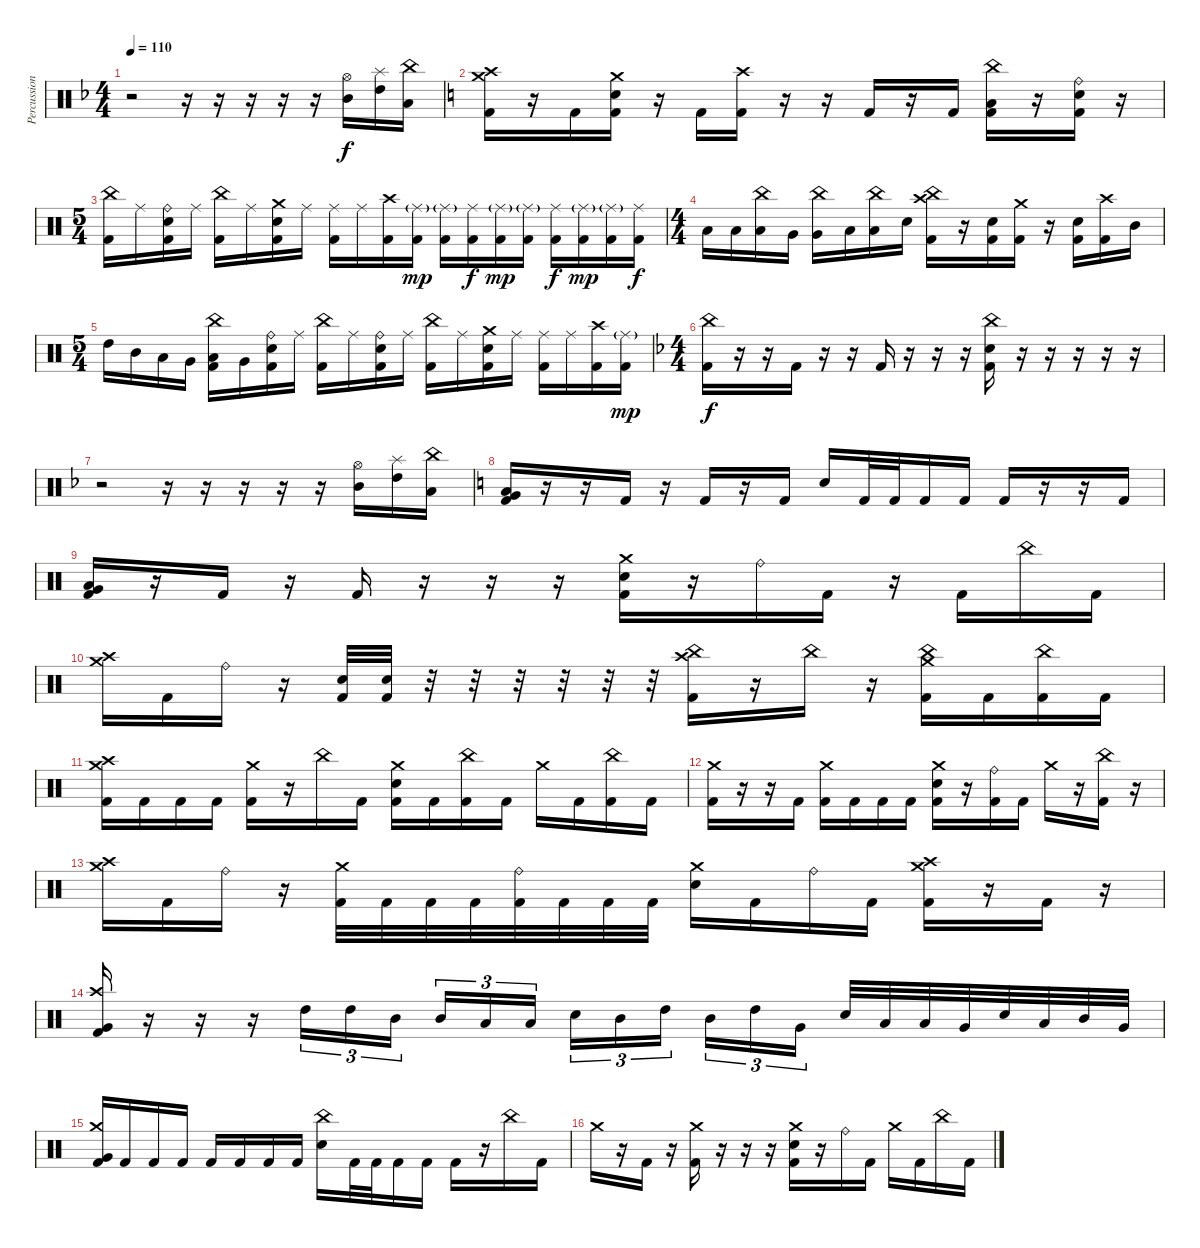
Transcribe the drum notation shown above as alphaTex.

\track ("Percussion" "Percussion") {instrument percussion}
\staff {score}
\articulation defaults
\ts (4 4)
\tempo 110
\clef neutral
\ks dminor
r.2{dy f} r.16 r.16 r.16 r.16 r.16 ("Mid Tom (hit)" "Hi-Hat (open)").16 ("High Tom (hit)" "Splash (hit)").16 ("Low Tom (hit)" "China (hit)").16 |
\ks c
("Kick (hit) 2" "Crash medium (hit)" "Crash high (hit)").16 r.16 "Kick (hit) 2".16 ("Kick (hit) 2" "Electric Snare (hit)" "Crash medium (hit)").16 r.16 "Kick (hit) 2".16 ("Kick (hit) 2" "Crash high (hit)").16 r.16 r.16 "Kick (hit) 2".16 r.16 "Kick (hit) 2".16 ("Kick (hit) 2" "Low Floor Tom (hit)" "China (hit)").16 r.16 ("Kick (hit) 2" "Electric Snare (hit)" "Ride (bell)").16 r.16 |
\ts (5 4)
("Kick (hit) 2" "China (hit)").16 "Ride (middle)".16 ("Kick (hit) 2" "Electric Snare (hit)" "Ride (bell)").16 "Ride (middle)".16 ("Kick (hit) 2" "China (hit)").16 "Ride (middle)".16 ("Kick (hit) 2" "Electric Snare (hit)" "Crash medium (hit)").16 "Ride (middle)".16 ("Kick (hit) 2" "Ride (middle)").16 "Ride (middle)".16 ("Kick (hit) 2" "Crash high (hit)").16 ("Kick (hit) 2" "Ride (middle)"{g}).16{dy mp} ("Kick (hit) 2" "Ride (middle)"{g}).16 ("Kick (hit) 2" "Ride (middle)").16{dy f} ("Kick (hit) 2" "Ride (middle)"{g}).16{dy mp} ("Kick (hit) 2" "Ride (middle)"{g}).16 ("Kick (hit) 2" "Ride (middle)").16{dy f} ("Kick (hit) 2" "Ride (middle)"{g}).16{dy mp} ("Kick (hit) 2" "Ride (middle)"{g}).16 ("Kick (hit) 2" "Ride (middle)").16{dy f} |
\ts (4 4)
"Low Tom (hit)".16 "Low Tom (hit)".16 ("Low Tom (hit)" "China (hit)").16 "Very Low Tom (hit)".16 ("Very Low Tom (hit)" "China (hit)").16 "Low Floor Tom (hit)".16 ("Low Floor Tom (hit)" "China (hit)").16 "Electric Snare (hit)".16 ("Kick (hit) 2" "China (hit)" "Crash high (hit)").16 r.16 ("Kick (hit) 2" "Electric Snare (hit)").16 ("Kick (hit) 2" "Crash medium (hit)").16 r.16 ("Kick (hit) 2" "Electric Snare (hit)").16 ("Kick (hit) 2" "Crash high (hit)").16 "Mid Tom (hit)".16 |
\ts (5 4)
"High Tom (hit)".16 "Mid Tom (hit)".16 "Low Tom (hit)".16 "Very Low Tom (hit)".16 ("Kick (hit) 2" "Low Floor Tom (hit)" "China (hit)").16 "Very Low Tom (hit)".16 ("Kick (hit) 2" "Electric Snare (hit)" "Ride (bell)").16 "Ride (middle)".16 ("Kick (hit) 2" "China (hit)").16 "Ride (middle)".16 ("Kick (hit) 2" "Electric Snare (hit)" "Ride (bell)").16 "Ride (middle)".16 ("Kick (hit) 2" "China (hit)").16 "Ride (middle)".16 ("Kick (hit) 2" "Electric Snare (hit)" "Crash medium (hit)").16 "Ride (middle)".16 ("Kick (hit) 2" "Ride (middle)").16 "Ride (middle)".16 ("Kick (hit) 2" "Crash high (hit)").16 ("Kick (hit) 2" "Ride (middle)"{g}).16{dy mp} |
\ts (4 4)
\ks dminor
("Kick (hit) 2" "China (hit)").16{dy f} r.16 r.16 "Kick (hit) 2".16 r.16 r.16 "Kick (hit) 2".16 r.16 r.16 r.16 ("Electric Snare (hit)" "China (hit)" "Kick (hit) 2").16 r.16 r.16 r.16 r.16 r.16 |
r.2 r.16 r.16 r.16 r.16 r.16 ("Mid Tom (hit)" "Hi-Hat (open)").16 ("High Tom (hit)" "Splash (hit)").16 ("Low Tom (hit)" "China (hit)").16 |
\ks c
("Kick (hit) 2" "Low Floor Tom (hit)" "Very Low Tom (hit)").16 r.16 r.16 "Kick (hit) 2".16 r.16 "Kick (hit) 2".16 r.16 "Kick (hit) 2".16 "Electric Snare (hit)".16 "Kick (hit) 2".32 "Kick (hit) 2".32 "Kick (hit) 2".16 "Kick (hit) 2".16 "Kick (hit) 2".16 r.16 r.16 "Kick (hit) 2".16 |
("Kick (hit) 2" "Low Floor Tom (hit)" "Very Low Tom (hit)").16 r.16 "Kick (hit) 2".16 r.16 "Kick (hit) 2".16 r.16 r.16 r.16 ("Kick (hit) 2" "Crash medium (hit)" "Electric Snare (hit)").16 r.16 "Ride (bell)".16 "Kick (hit) 2".16 r.16 "Kick (hit) 2".16 "China (hit)".16 "Kick (hit) 2".16 |
("Crash medium (hit)" "Crash high (hit)").16 "Kick (hit) 2".16 "Ride (bell)".16 r.16 ("Kick (hit) 2" "Electric Snare (hit)").32 ("Kick (hit) 2" "Electric Snare (hit)").32 r.32 r.32 r.32 r.32 r.32 r.32 ("Kick (hit) 2" "China (hit)" "Crash high (hit)").16 r.16 "China (hit)".16 r.16 ("Kick (hit) 2" "China (hit)" "Crash medium (hit)").16 "Kick (hit) 2".16 ("Kick (hit) 2" "China (hit)").16 "Kick (hit) 2".16 |
("Kick (hit) 2" "Crash high (hit)" "Crash medium (hit)").16 "Kick (hit) 2".16 "Kick (hit) 2".16 "Kick (hit) 2".16 ("Kick (hit) 2" "Crash medium (hit)").16 r.16 "China (hit)".16 "Kick (hit) 2".16 ("Kick (hit) 2" "Crash medium (hit)" "Electric Snare (hit)").16 "Kick (hit) 2".16 ("Kick (hit) 2" "China (hit)").16 "Kick (hit) 2".16 "Crash medium (hit)".16 "Kick (hit) 2".16 ("Kick (hit) 2" "China (hit)").16 "Kick (hit) 2".16 |
("Kick (hit) 2" "Crash medium (hit)").16 r.16 r.16 "Kick (hit) 2".16 ("Kick (hit) 2" "Crash medium (hit)").16 "Kick (hit) 2".16 "Kick (hit) 2".16 "Kick (hit) 2".16 ("Kick (hit) 2" "Crash medium (hit)" "Electric Snare (hit)").16 r.16 ("Kick (hit) 2" "Ride (bell)").16 "Kick (hit) 2".16 "Crash medium (hit)".16 r.16 ("Kick (hit) 2" "China (hit)").16 r.16 |
("Crash medium (hit)" "Crash high (hit)").16 "Kick (hit) 2".16 "Ride (bell)".16 r.16 ("Kick (hit) 2" "Crash medium (hit)").32 "Kick (hit) 2".32 "Kick (hit) 2".32 "Kick (hit) 2".32 ("Kick (hit) 2" "Ride (bell)").32 "Kick (hit) 2".32 "Kick (hit) 2".32 "Kick (hit) 2".32 ("Crash medium (hit)" "Electric Snare (hit)").16 "Kick (hit) 2".16 "Ride (bell)".16 "Kick (hit) 2".16 ("Kick (hit) 2" "Crash high (hit)" "Crash medium (hit)").16 r.16 "Kick (hit) 2".16 r.16 |
("Kick (hit) 2" "Very Low Tom (hit)" "Crash high (hit)").16 r.16 r.16 r.16 "High Tom (hit)".16{tu (3 2)} "High Tom (hit)".16{tu (3 2)} "Mid Tom (hit)".16{tu (3 2)} "Mid Tom (hit)".16{tu (3 2)} "Low Tom (hit)".16{tu (3 2)} "Low Tom (hit)".16{tu (3 2)} "Electric Snare (hit)".16{tu (3 2)} "Mid Tom (hit)".16{tu (3 2)} "High Tom (hit)".16{tu (3 2)} "Mid Tom (hit)".16{tu (3 2)} "High Tom (hit)".16{tu (3 2)} "Very Low Tom (hit)".16{tu (3 2)} "Electric Snare (hit)".32 "Low Tom (hit)".32 "Low Tom (hit)".32 "Very Low Tom (hit)".32 "Electric Snare (hit)".32 "Low Tom (hit)".32 "Mid Tom (hit)".32 "Very Low Tom (hit)".32 |
("Kick (hit) 2" "Very Low Tom (hit)" "Crash medium (hit)").16 "Kick (hit) 2".16 "Kick (hit) 2".16 "Kick (hit) 2".16 "Kick (hit) 2".16 "Kick (hit) 2".16 "Kick (hit) 2".16 "Kick (hit) 2".16 ("China (hit)" "Electric Snare (hit)").16 "Kick (hit) 2".32 "Kick (hit) 2".32 "Kick (hit) 2".16 "Kick (hit) 2".16 "Kick (hit) 2".16 r.16 "China (hit)".16 "Kick (hit) 2".16 |
"Crash medium (hit)".16 r.16 "Kick (hit) 2".16 r.16 ("Kick (hit) 2" "Crash medium (hit)").16 r.16 r.16 r.16 ("Kick (hit) 2" "Crash medium (hit)" "Electric Snare (hit)").16 r.16 "Ride (bell)".16 "Kick (hit) 2".16 "Crash medium (hit)".16 "Kick (hit) 2".16 "China (hit)".16 "Kick (hit) 2".16
